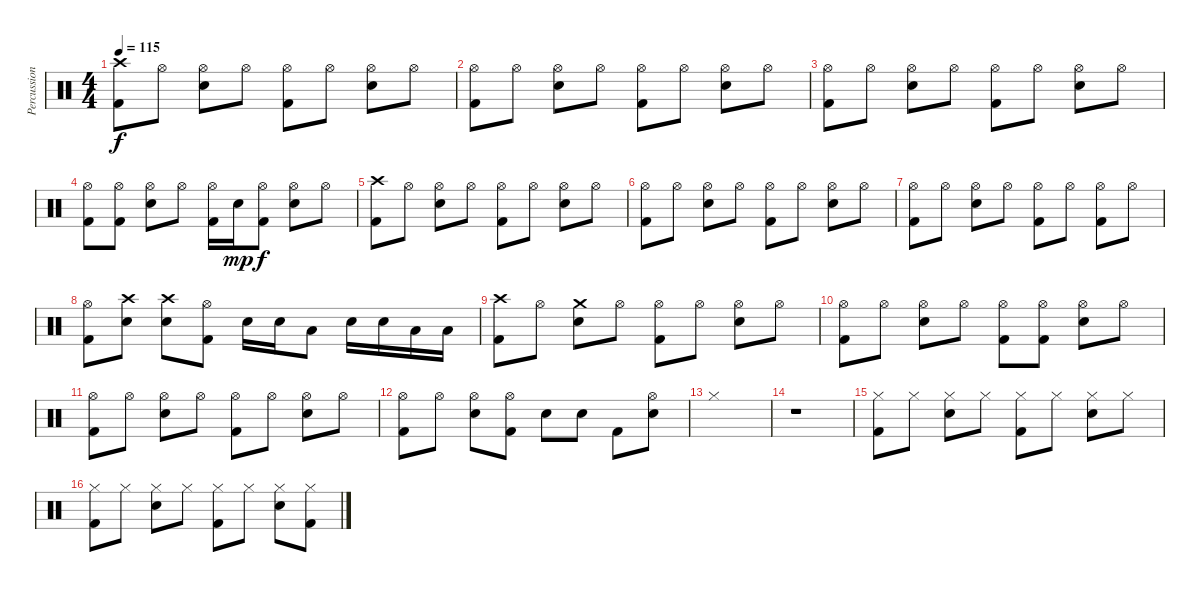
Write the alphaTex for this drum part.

\track ("Percussion" "Percussion") {instrument percussion}
\staff {score}
\articulation defaults
\ts (4 4)
\tempo 115
\clef neutral
\ks c
("Crash high (hit)" "Kick (hit) 2").8{dy f} "Hi-Hat (open)".8 ("Hi-Hat (open)" "Electric Snare (hit)").8 "Hi-Hat (open)".8 ("Hi-Hat (open)" "Kick (hit) 2").8 "Hi-Hat (open)".8 ("Hi-Hat (open)" "Electric Snare (hit)").8 "Hi-Hat (open)".8 |
("Hi-Hat (open)" "Kick (hit) 2").8 "Hi-Hat (open)".8 ("Hi-Hat (open)" "Electric Snare (hit)").8 "Hi-Hat (open)".8 ("Hi-Hat (open)" "Kick (hit) 2").8 "Hi-Hat (open)".8 ("Hi-Hat (open)" "Electric Snare (hit)").8 "Hi-Hat (open)".8 |
("Hi-Hat (open)" "Kick (hit) 2").8 "Hi-Hat (open)".8 ("Hi-Hat (open)" "Electric Snare (hit)").8 "Hi-Hat (open)".8 ("Hi-Hat (open)" "Kick (hit) 2").8 "Hi-Hat (open)".8 ("Hi-Hat (open)" "Electric Snare (hit)").8 "Hi-Hat (open)".8 |
("Hi-Hat (open)" "Kick (hit) 2").8 ("Hi-Hat (open)" "Kick (hit) 2").8 ("Hi-Hat (open)" "Electric Snare (hit)").8 "Hi-Hat (open)".8 ("Hi-Hat (open)" "Kick (hit) 2").16 "Electric Snare (hit)".16{dy mp} ("Hi-Hat (open)" "Kick (hit) 2").8{dy f} ("Hi-Hat (open)" "Electric Snare (hit)").8 "Hi-Hat (open)".8 |
("Crash high (hit)" "Kick (hit) 2").8 "Hi-Hat (open)".8 ("Hi-Hat (open)" "Electric Snare (hit)").8 "Hi-Hat (open)".8 ("Hi-Hat (open)" "Kick (hit) 2").8 "Hi-Hat (open)".8 ("Hi-Hat (open)" "Electric Snare (hit)").8 "Hi-Hat (open)".8 |
("Hi-Hat (open)" "Kick (hit) 2").8 "Hi-Hat (open)".8 ("Hi-Hat (open)" "Electric Snare (hit)").8 "Hi-Hat (open)".8 ("Hi-Hat (open)" "Kick (hit) 2").8 "Hi-Hat (open)".8 ("Hi-Hat (open)" "Electric Snare (hit)").8 "Hi-Hat (open)".8 |
("Hi-Hat (open)" "Kick (hit) 2").8 "Hi-Hat (open)".8 ("Hi-Hat (open)" "Electric Snare (hit)").8 "Hi-Hat (open)".8 ("Hi-Hat (open)" "Kick (hit) 2").8 "Hi-Hat (open)".8 ("Hi-Hat (open)" "Kick (hit) 2").8 "Hi-Hat (open)".8 |
("Hi-Hat (open)" "Kick (hit) 2").8 ("Crash high (hit)" "Electric Snare (hit)").8 ("Crash high (hit)" "Electric Snare (hit)").8 ("Hi-Hat (open)" "Kick (hit) 2").8 "Electric Snare (hit)".16 "Electric Snare (hit)".16 "Low Tom (hit)".8 "Electric Snare (hit)".16 "Electric Snare (hit)".16 "Low Tom (hit)".16 "Low Floor Tom (hit)".16 |
("Crash high (hit)" "Kick (hit) 2").8 "Hi-Hat (open)".8 ("Crash medium (hit)" "Electric Snare (hit)").8 "Hi-Hat (open)".8 ("Hi-Hat (open)" "Kick (hit) 2").8 "Hi-Hat (open)".8 ("Hi-Hat (open)" "Electric Snare (hit)").8 "Hi-Hat (open)".8 |
("Hi-Hat (open)" "Kick (hit) 2").8 "Hi-Hat (open)".8 ("Hi-Hat (open)" "Electric Snare (hit)").8 "Hi-Hat (open)".8 ("Hi-Hat (open)" "Kick (hit) 2").8 ("Hi-Hat (open)" "Kick (hit) 2").8 ("Hi-Hat (open)" "Electric Snare (hit)").8 "Hi-Hat (open)".8 |
("Hi-Hat (open)" "Kick (hit) 2").8 "Hi-Hat (open)".8 ("Hi-Hat (open)" "Electric Snare (hit)").8 "Hi-Hat (open)".8 ("Hi-Hat (open)" "Kick (hit) 2").8 "Hi-Hat (open)".8 ("Hi-Hat (open)" "Electric Snare (hit)").8 "Hi-Hat (open)".8 |
("Hi-Hat (open)" "Kick (hit) 2").8 "Hi-Hat (open)".8 ("Hi-Hat (open)" "Electric Snare (hit)").8 ("Hi-Hat (open)" "Kick (hit) 2").8 "Electric Snare (hit)".8 "Electric Snare (hit)".8 "Kick (hit) 2".8 ("Hi-Hat (open)" "Electric Snare (hit)").8 |
"Hi-Hat (closed)".1 |
r.1 |
("Hi-Hat (closed)" "Kick (hit) 2").8 "Hi-Hat (closed)".8 ("Hi-Hat (closed)" "Electric Snare (hit)").8 "Hi-Hat (closed)".8 ("Hi-Hat (closed)" "Kick (hit) 2").8 "Hi-Hat (closed)".8 ("Hi-Hat (closed)" "Electric Snare (hit)").8 "Hi-Hat (closed)".8 |
("Hi-Hat (closed)" "Kick (hit) 2").8 "Hi-Hat (closed)".8 ("Hi-Hat (closed)" "Electric Snare (hit)").8 "Hi-Hat (closed)".8 ("Hi-Hat (closed)" "Kick (hit) 2").8 "Hi-Hat (closed)".8 ("Hi-Hat (closed)" "Electric Snare (hit)").8 ("Hi-Hat (closed)" "Kick (hit) 2").8
